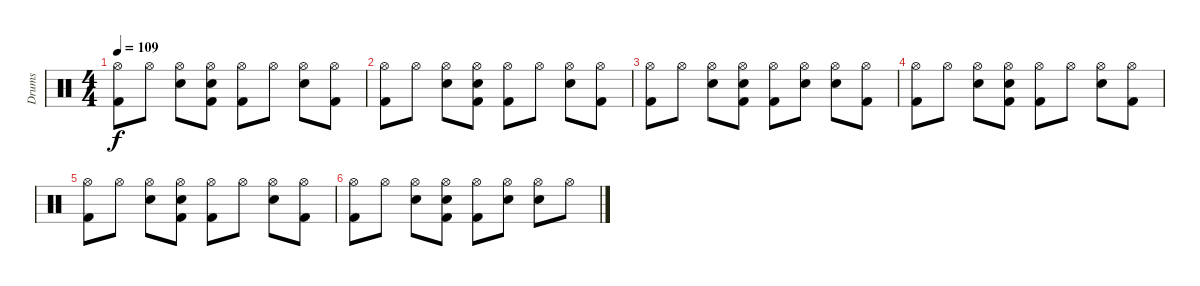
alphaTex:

\track ("Drums" "Drums") {instrument percussion}
\staff {score}
\articulation defaults
\ts (4 4)
\tempo 109
\clef neutral
\ks c
("Hi-Hat (open)" "Kick (hit) 2").8{dy f} "Hi-Hat (open)".8 ("Hi-Hat (open)" "Electric Snare (hit)").8 ("Hi-Hat (open)" "Electric Snare (hit)" "Kick (hit) 2").8 ("Hi-Hat (open)" "Kick (hit) 2").8 "Hi-Hat (open)".8 ("Hi-Hat (open)" "Electric Snare (hit)").8 ("Hi-Hat (open)" "Kick (hit) 2").8 |
("Hi-Hat (open)" "Kick (hit) 2").8 "Hi-Hat (open)".8 ("Hi-Hat (open)" "Electric Snare (hit)").8 ("Hi-Hat (open)" "Electric Snare (hit)" "Kick (hit) 2").8 ("Hi-Hat (open)" "Kick (hit) 2").8 "Hi-Hat (open)".8 ("Hi-Hat (open)" "Electric Snare (hit)").8 ("Hi-Hat (open)" "Kick (hit) 2").8 |
("Hi-Hat (open)" "Kick (hit) 2").8 "Hi-Hat (open)".8 ("Hi-Hat (open)" "Electric Snare (hit)").8 ("Hi-Hat (open)" "Electric Snare (hit)" "Kick (hit) 2").8 ("Hi-Hat (open)" "Kick (hit) 2").8 ("Hi-Hat (open)" "Electric Snare (hit)").8 ("Hi-Hat (open)" "Electric Snare (hit)").8 ("Hi-Hat (open)" "Kick (hit) 2").8 |
("Hi-Hat (open)" "Kick (hit) 2").8 "Hi-Hat (open)".8 ("Hi-Hat (open)" "Electric Snare (hit)").8 ("Hi-Hat (open)" "Electric Snare (hit)" "Kick (hit) 2").8 ("Hi-Hat (open)" "Kick (hit) 2").8 "Hi-Hat (open)".8 ("Hi-Hat (open)" "Electric Snare (hit)").8 ("Hi-Hat (open)" "Kick (hit) 2").8 |
("Hi-Hat (open)" "Kick (hit) 2").8 "Hi-Hat (open)".8 ("Hi-Hat (open)" "Electric Snare (hit)").8 ("Hi-Hat (open)" "Electric Snare (hit)" "Kick (hit) 2").8 ("Hi-Hat (open)" "Kick (hit) 2").8 "Hi-Hat (open)".8 ("Hi-Hat (open)" "Electric Snare (hit)").8 ("Hi-Hat (open)" "Kick (hit) 2").8 |
("Hi-Hat (open)" "Kick (hit) 2").8 "Hi-Hat (open)".8 ("Hi-Hat (open)" "Electric Snare (hit)").8 ("Hi-Hat (open)" "Electric Snare (hit)" "Kick (hit) 2").8 ("Hi-Hat (open)" "Kick (hit) 2").8 ("Hi-Hat (open)" "Electric Snare (hit)").8 ("Hi-Hat (open)" "Electric Snare (hit)").8 "Hi-Hat (open)".8
